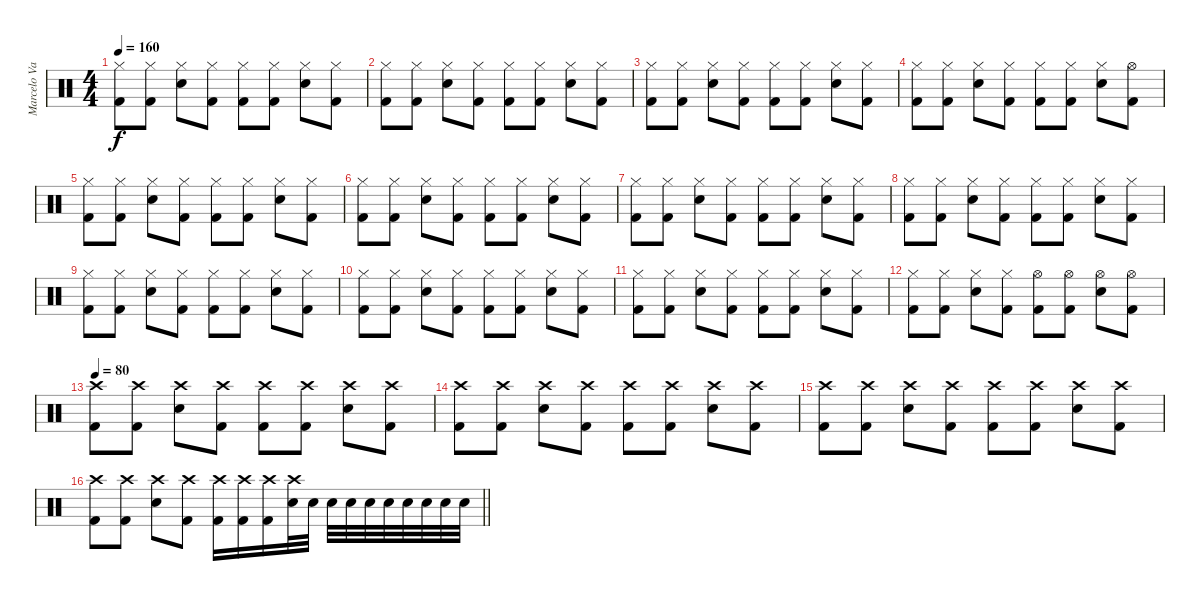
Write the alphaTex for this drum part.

\track ("Marcelo Valenzuela (Bateria)" "Marcelo Va") {instrument percussion}
\staff {score}
\articulation defaults
\ts (4 4)
\tempo 160
\clef neutral
\ks c
("Hi-Hat (closed)" "Kick (hit) 2").8{dy f} ("Hi-Hat (closed)" "Kick (hit) 2").8 ("Hi-Hat (closed)" "Electric Snare (hit)").8 ("Hi-Hat (closed)" "Kick (hit) 2").8 ("Hi-Hat (closed)" "Kick (hit) 2").8 ("Hi-Hat (closed)" "Kick (hit) 2").8 ("Hi-Hat (closed)" "Electric Snare (hit)").8 ("Hi-Hat (closed)" "Kick (hit) 2").8 |
("Hi-Hat (closed)" "Kick (hit) 2").8 ("Hi-Hat (closed)" "Kick (hit) 2").8 ("Hi-Hat (closed)" "Electric Snare (hit)").8 ("Hi-Hat (closed)" "Kick (hit) 2").8 ("Hi-Hat (closed)" "Kick (hit) 2").8 ("Hi-Hat (closed)" "Kick (hit) 2").8 ("Hi-Hat (closed)" "Electric Snare (hit)").8 ("Hi-Hat (closed)" "Kick (hit) 2").8 |
("Hi-Hat (closed)" "Kick (hit) 2").8 ("Hi-Hat (closed)" "Kick (hit) 2").8 ("Hi-Hat (closed)" "Electric Snare (hit)").8 ("Hi-Hat (closed)" "Kick (hit) 2").8 ("Hi-Hat (closed)" "Kick (hit) 2").8 ("Hi-Hat (closed)" "Kick (hit) 2").8 ("Hi-Hat (closed)" "Electric Snare (hit)").8 ("Hi-Hat (closed)" "Kick (hit) 2").8 |
("Hi-Hat (closed)" "Kick (hit) 2").8 ("Hi-Hat (closed)" "Kick (hit) 2").8 ("Hi-Hat (closed)" "Electric Snare (hit)").8 ("Hi-Hat (closed)" "Kick (hit) 2").8 ("Hi-Hat (closed)" "Kick (hit) 2").8 ("Hi-Hat (closed)" "Kick (hit) 2").8 ("Hi-Hat (closed)" "Electric Snare (hit)").8 ("Hi-Hat (open)" "Kick (hit) 2").8 |
("Hi-Hat (closed)" "Kick (hit) 2").8 ("Hi-Hat (closed)" "Kick (hit) 2").8 ("Hi-Hat (closed)" "Electric Snare (hit)").8 ("Hi-Hat (closed)" "Kick (hit) 2").8 ("Hi-Hat (closed)" "Kick (hit) 2").8 ("Hi-Hat (closed)" "Kick (hit) 2").8 ("Hi-Hat (closed)" "Electric Snare (hit)").8 ("Hi-Hat (closed)" "Kick (hit) 2").8 |
("Hi-Hat (closed)" "Kick (hit) 2").8 ("Hi-Hat (closed)" "Kick (hit) 2").8 ("Hi-Hat (closed)" "Electric Snare (hit)").8 ("Hi-Hat (closed)" "Kick (hit) 2").8 ("Hi-Hat (closed)" "Kick (hit) 2").8 ("Hi-Hat (closed)" "Kick (hit) 2").8 ("Hi-Hat (closed)" "Electric Snare (hit)").8 ("Hi-Hat (closed)" "Kick (hit) 2").8 |
("Hi-Hat (closed)" "Kick (hit) 2").8 ("Hi-Hat (closed)" "Kick (hit) 2").8 ("Hi-Hat (closed)" "Electric Snare (hit)").8 ("Hi-Hat (closed)" "Kick (hit) 2").8 ("Hi-Hat (closed)" "Kick (hit) 2").8 ("Hi-Hat (closed)" "Kick (hit) 2").8 ("Hi-Hat (closed)" "Electric Snare (hit)").8 ("Hi-Hat (closed)" "Kick (hit) 2").8 |
("Hi-Hat (closed)" "Kick (hit) 2").8 ("Hi-Hat (closed)" "Kick (hit) 2").8 ("Hi-Hat (closed)" "Electric Snare (hit)").8 ("Hi-Hat (closed)" "Kick (hit) 2").8 ("Hi-Hat (closed)" "Kick (hit) 2").8 ("Hi-Hat (closed)" "Kick (hit) 2").8 ("Hi-Hat (closed)" "Electric Snare (hit)").8 ("Hi-Hat (closed)" "Kick (hit) 2").8 |
("Hi-Hat (closed)" "Kick (hit) 2").8 ("Hi-Hat (closed)" "Kick (hit) 2").8 ("Hi-Hat (closed)" "Electric Snare (hit)").8 ("Hi-Hat (closed)" "Kick (hit) 2").8 ("Hi-Hat (closed)" "Kick (hit) 2").8 ("Hi-Hat (closed)" "Kick (hit) 2").8 ("Hi-Hat (closed)" "Electric Snare (hit)").8 ("Hi-Hat (closed)" "Kick (hit) 2").8 |
("Hi-Hat (closed)" "Kick (hit) 2").8 ("Hi-Hat (closed)" "Kick (hit) 2").8 ("Hi-Hat (closed)" "Electric Snare (hit)").8 ("Hi-Hat (closed)" "Kick (hit) 2").8 ("Hi-Hat (closed)" "Kick (hit) 2").8 ("Hi-Hat (closed)" "Kick (hit) 2").8 ("Hi-Hat (closed)" "Electric Snare (hit)").8 ("Hi-Hat (closed)" "Kick (hit) 2").8 |
("Hi-Hat (closed)" "Kick (hit) 2").8 ("Hi-Hat (closed)" "Kick (hit) 2").8 ("Hi-Hat (closed)" "Electric Snare (hit)").8 ("Hi-Hat (closed)" "Kick (hit) 2").8 ("Hi-Hat (closed)" "Kick (hit) 2").8 ("Hi-Hat (closed)" "Kick (hit) 2").8 ("Hi-Hat (closed)" "Electric Snare (hit)").8 ("Hi-Hat (closed)" "Kick (hit) 2").8 |
("Hi-Hat (closed)" "Kick (hit) 2").8 ("Hi-Hat (closed)" "Kick (hit) 2").8 ("Hi-Hat (closed)" "Electric Snare (hit)").8 ("Hi-Hat (closed)" "Kick (hit) 2").8 ("Hi-Hat (open)" "Kick (hit) 2").8 ("Hi-Hat (open)" "Kick (hit) 2").8 ("Hi-Hat (open)" "Electric Snare (hit)").8 ("Hi-Hat (open)" "Kick (hit) 2").8 |
\tempo 80
("Crash high (hit)" "Kick (hit) 2").8 ("Crash high (hit)" "Kick (hit) 2").8 ("Crash high (hit)" "Electric Snare (hit)").8 ("Crash high (hit)" "Kick (hit) 2").8 ("Crash high (hit)" "Kick (hit) 2").8 ("Crash high (hit)" "Kick (hit) 2").8 ("Crash high (hit)" "Electric Snare (hit)").8 ("Crash high (hit)" "Kick (hit) 2").8 |
("Crash high (hit)" "Kick (hit) 2").8 ("Crash high (hit)" "Kick (hit) 2").8 ("Crash high (hit)" "Electric Snare (hit)").8 ("Crash high (hit)" "Kick (hit) 2").8 ("Crash high (hit)" "Kick (hit) 2").8 ("Crash high (hit)" "Kick (hit) 2").8 ("Crash high (hit)" "Electric Snare (hit)").8 ("Crash high (hit)" "Kick (hit) 2").8 |
("Crash high (hit)" "Kick (hit) 2").8 ("Crash high (hit)" "Kick (hit) 2").8 ("Crash high (hit)" "Electric Snare (hit)").8 ("Crash high (hit)" "Kick (hit) 2").8 ("Crash high (hit)" "Kick (hit) 2").8 ("Crash high (hit)" "Kick (hit) 2").8 ("Crash high (hit)" "Electric Snare (hit)").8 ("Crash high (hit)" "Kick (hit) 2").8 |
\barLineRight lightlight
("Crash high (hit)" "Kick (hit) 2").8 ("Crash high (hit)" "Kick (hit) 2").8 ("Crash high (hit)" "Electric Snare (hit)").8 ("Crash high (hit)" "Kick (hit) 2").8 ("Crash high (hit)" "Kick (hit) 2").16 ("Crash high (hit)" "Kick (hit) 2").16 ("Crash high (hit)" "Kick (hit) 2").16 ("Crash high (hit)" "Electric Snare (hit)").32 "Electric Snare (hit)".32 "Electric Snare (hit)".32 "Electric Snare (hit)".32 "Electric Snare (hit)".32 "Electric Snare (hit)".32 "Electric Snare (hit)".32 "Electric Snare (hit)".32 "Electric Snare (hit)".32 "Electric Snare (hit)".32
